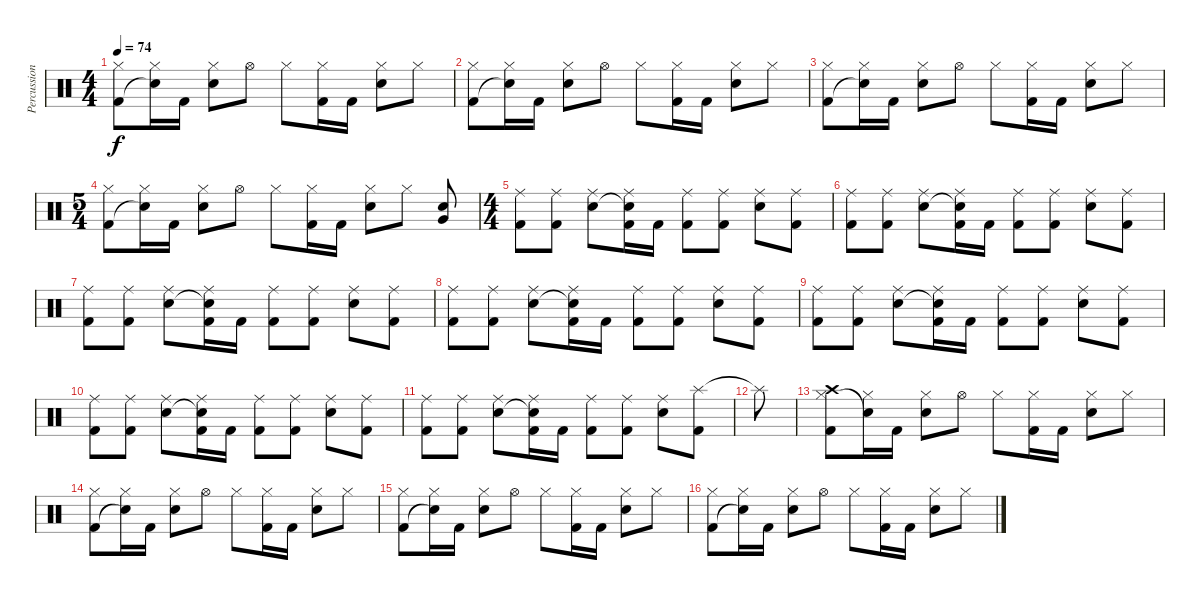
\track ("Percussion" "Percussion") {instrument percussion}
\staff {score}
\articulation defaults
\ts (4 4)
\tempo 74
\clef neutral
\ks c
("Hi-Hat (closed)" "Kick (hit) 2").8{dy f} ("Hi-Hat (closed)" "Snare (hit)"{t}).16 "Kick (hit) 2".16 ("Hi-Hat (closed)" "Electric Snare (hit)").8 "Hi-Hat (open)".8 "Hi-Hat (closed)".8 ("Hi-Hat (closed)" "Kick (hit) 2").16 "Kick (hit) 2".16 ("Hi-Hat (closed)" "Electric Snare (hit)").8 "Hi-Hat (closed)".8 |
("Hi-Hat (closed)" "Kick (hit) 2").8 ("Hi-Hat (closed)" "Snare (hit)"{t}).16 "Kick (hit) 2".16 ("Hi-Hat (closed)" "Electric Snare (hit)").8 "Hi-Hat (open)".8 "Hi-Hat (closed)".8 ("Hi-Hat (closed)" "Kick (hit) 2").16 "Kick (hit) 2".16 ("Hi-Hat (closed)" "Electric Snare (hit)").8 "Hi-Hat (closed)".8 |
("Hi-Hat (closed)" "Kick (hit) 2").8 ("Hi-Hat (closed)" "Snare (hit)"{t}).16 "Kick (hit) 2".16 ("Hi-Hat (closed)" "Electric Snare (hit)").8 "Hi-Hat (open)".8 "Hi-Hat (closed)".8 ("Hi-Hat (closed)" "Kick (hit) 2").16 "Kick (hit) 2".16 ("Hi-Hat (closed)" "Electric Snare (hit)").8 "Hi-Hat (closed)".8 |
\ts (5 4)
("Hi-Hat (closed)" "Kick (hit) 2").8 ("Hi-Hat (closed)" "Snare (hit)"{t}).16 "Kick (hit) 2".16 ("Hi-Hat (closed)" "Electric Snare (hit)").8 "Hi-Hat (open)".8 "Hi-Hat (closed)".8 ("Hi-Hat (closed)" "Kick (hit) 2").16 "Kick (hit) 2".16 ("Hi-Hat (closed)" "Electric Snare (hit)").8 "Hi-Hat (closed)".8 ("Very Low Tom (hit)" "Electric Snare (hit)").8 |
\ts (4 4)
("Ride (middle)" "Kick (hit) 2").8 ("Ride (middle)" "Kick (hit) 2").8 ("Ride (middle)" "Electric Snare (hit)").8 ("Ride (middle)" "Snare (hit)"{t} "Kick (hit) 2").16 "Kick (hit) 2".16 ("Ride (middle)" "Kick (hit) 2").8 ("Ride (middle)" "Kick (hit) 2").8 ("Ride (middle)" "Electric Snare (hit)").8 ("Ride (middle)" "Kick (hit) 2").8 |
("Ride (middle)" "Kick (hit) 2").8 ("Ride (middle)" "Kick (hit) 2").8 ("Ride (middle)" "Electric Snare (hit)").8 ("Ride (middle)" "Snare (hit)"{t} "Kick (hit) 2").16 "Kick (hit) 2".16 ("Ride (middle)" "Kick (hit) 2").8 ("Ride (middle)" "Kick (hit) 2").8 ("Ride (middle)" "Electric Snare (hit)").8 ("Ride (middle)" "Kick (hit) 2").8 |
("Ride (middle)" "Kick (hit) 2").8 ("Ride (middle)" "Kick (hit) 2").8 ("Ride (middle)" "Electric Snare (hit)").8 ("Ride (middle)" "Snare (hit)"{t} "Kick (hit) 2").16 "Kick (hit) 2".16 ("Ride (middle)" "Kick (hit) 2").8 ("Ride (middle)" "Kick (hit) 2").8 ("Ride (middle)" "Electric Snare (hit)").8 ("Ride (middle)" "Kick (hit) 2").8 |
("Ride (middle)" "Kick (hit) 2").8 ("Ride (middle)" "Kick (hit) 2").8 ("Ride (middle)" "Electric Snare (hit)").8 ("Ride (middle)" "Snare (hit)"{t} "Kick (hit) 2").16 "Kick (hit) 2".16 ("Ride (middle)" "Kick (hit) 2").8 ("Ride (middle)" "Kick (hit) 2").8 ("Ride (middle)" "Electric Snare (hit)").8 ("Ride (middle)" "Kick (hit) 2").8 |
("Ride (middle)" "Kick (hit) 2").8 ("Ride (middle)" "Kick (hit) 2").8 ("Ride (middle)" "Electric Snare (hit)").8 ("Ride (middle)" "Snare (hit)"{t} "Kick (hit) 2").16 "Kick (hit) 2".16 ("Ride (middle)" "Kick (hit) 2").8 ("Ride (middle)" "Kick (hit) 2").8 ("Ride (middle)" "Electric Snare (hit)").8 ("Ride (middle)" "Kick (hit) 2").8 |
("Ride (middle)" "Kick (hit) 2").8 ("Ride (middle)" "Kick (hit) 2").8 ("Ride (middle)" "Electric Snare (hit)").8 ("Ride (middle)" "Snare (hit)"{t} "Kick (hit) 2").16 "Kick (hit) 2".16 ("Ride (middle)" "Kick (hit) 2").8 ("Ride (middle)" "Kick (hit) 2").8 ("Ride (middle)" "Electric Snare (hit)").8 ("Ride (middle)" "Kick (hit) 2").8 |
("Ride (middle)" "Kick (hit) 2").8 ("Ride (middle)" "Kick (hit) 2").8 ("Ride (middle)" "Electric Snare (hit)").8 ("Ride (middle)" "Snare (hit)"{t} "Kick (hit) 2").16 "Kick (hit) 2".16 ("Ride (middle)" "Kick (hit) 2").8 ("Ride (middle)" "Kick (hit) 2").8 ("Ride (middle)" "Electric Snare (hit)").8 ("Splash (hit)" "Kick (hit) 2").8 |
"Splash (hit)"{t}.8 |
("Crash high (hit)" "Hi-Hat (closed)" "Kick (hit) 2").8 ("Hi-Hat (closed)" "Snare (hit)"{t}).16 "Kick (hit) 2".16 ("Hi-Hat (closed)" "Electric Snare (hit)").8 "Hi-Hat (open)".8 "Hi-Hat (closed)".8 ("Hi-Hat (closed)" "Kick (hit) 2").16 "Kick (hit) 2".16 ("Hi-Hat (closed)" "Electric Snare (hit)").8 "Hi-Hat (closed)".8 |
("Hi-Hat (closed)" "Kick (hit) 2").8 ("Hi-Hat (closed)" "Snare (hit)"{t}).16 "Kick (hit) 2".16 ("Hi-Hat (closed)" "Electric Snare (hit)").8 "Hi-Hat (open)".8 "Hi-Hat (closed)".8 ("Hi-Hat (closed)" "Kick (hit) 2").16 "Kick (hit) 2".16 ("Hi-Hat (closed)" "Electric Snare (hit)").8 "Hi-Hat (closed)".8 |
("Hi-Hat (closed)" "Kick (hit) 2").8 ("Hi-Hat (closed)" "Snare (hit)"{t}).16 "Kick (hit) 2".16 ("Hi-Hat (closed)" "Electric Snare (hit)").8 "Hi-Hat (open)".8 "Hi-Hat (closed)".8 ("Hi-Hat (closed)" "Kick (hit) 2").16 "Kick (hit) 2".16 ("Hi-Hat (closed)" "Electric Snare (hit)").8 "Hi-Hat (closed)".8 |
("Hi-Hat (closed)" "Kick (hit) 2").8 ("Hi-Hat (closed)" "Snare (hit)"{t}).16 "Kick (hit) 2".16 ("Hi-Hat (closed)" "Electric Snare (hit)").8 "Hi-Hat (open)".8 "Hi-Hat (closed)".8 ("Hi-Hat (closed)" "Kick (hit) 2").16 "Kick (hit) 2".16 ("Hi-Hat (closed)" "Electric Snare (hit)").8 "Hi-Hat (closed)".8
